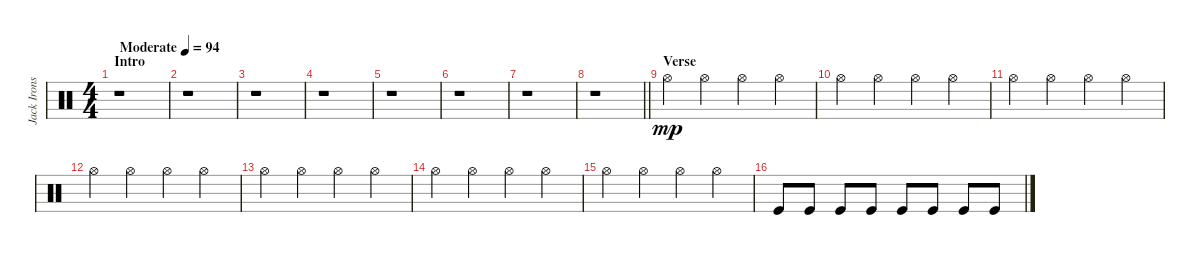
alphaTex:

\track ("Jack Irons" "Jack Irons") {instrument percussion}
\staff {score}
\articulation defaults
\ts (4 4)
\section ("" "Intro")
\tempo (94 "Moderate")
\clef neutral
\ks c
r.1{dy mp} |
r.1 |
r.1 |
r.1 |
r.1 |
r.1 |
r.1 |
\barLineRight lightlight
r.1 |
\section ("" "Verse")
"Hi-Hat (open)".4 "Hi-Hat (open)".4 "Hi-Hat (open)".4 "Hi-Hat (open)".4 |
"Hi-Hat (open)".4 "Hi-Hat (open)".4 "Hi-Hat (open)".4 "Hi-Hat (open)".4 |
"Hi-Hat (open)".4 "Hi-Hat (open)".4 "Hi-Hat (open)".4 "Hi-Hat (open)".4 |
"Hi-Hat (open)".4 "Hi-Hat (open)".4 "Hi-Hat (open)".4 "Hi-Hat (open)".4 |
"Hi-Hat (open)".4 "Hi-Hat (open)".4 "Hi-Hat (open)".4 "Hi-Hat (open)".4 |
"Hi-Hat (open)".4 "Hi-Hat (open)".4 "Hi-Hat (open)".4 "Hi-Hat (open)".4 |
"Hi-Hat (open)".4 "Hi-Hat (open)".4 "Hi-Hat (open)".4 "Hi-Hat (open)".4 |
"Kick (hit)".8 "Kick (hit)".8 "Kick (hit)".8 "Kick (hit)".8 "Kick (hit)".8 "Kick (hit)".8 "Kick (hit)".8 "Kick (hit)".8
